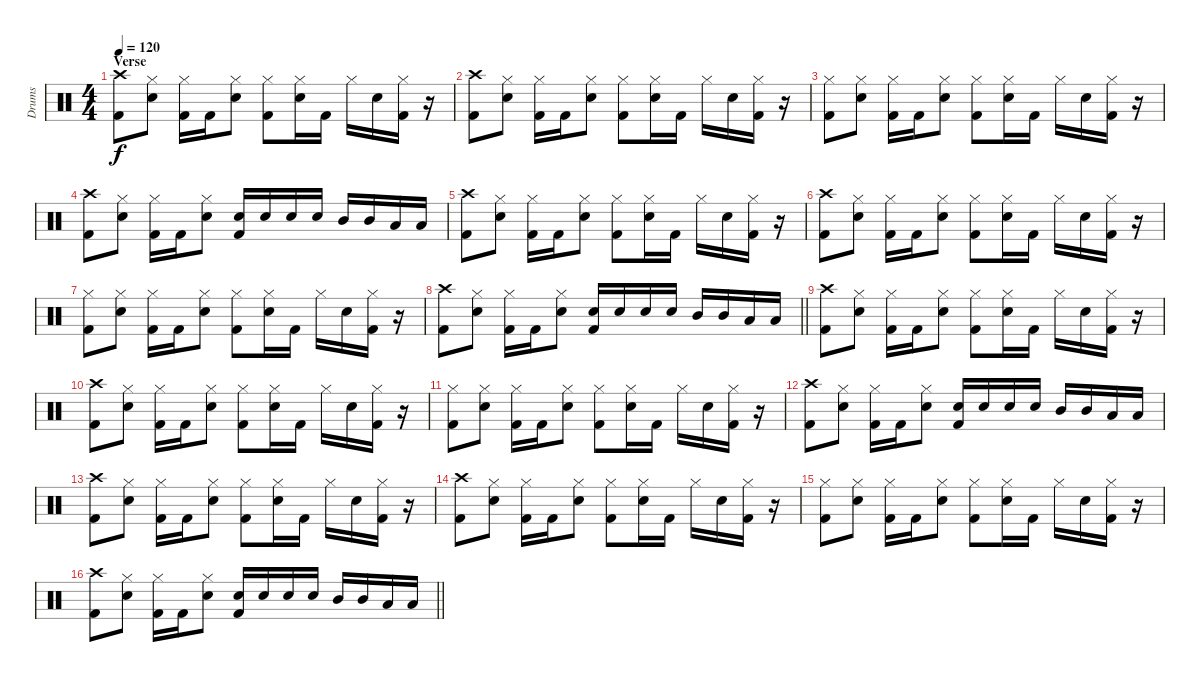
\track ("Drums" "Drums") {instrument percussion}
\staff {score}
\articulation defaults
\ts (4 4)
\section ("" "Verse")
\tempo 120
\clef neutral
\ks c
("Crash high (hit)" "Kick (hit) 2").8{dy f} ("Hi-Hat (closed)" "Snare (hit) 2").8 ("Hi-Hat (closed)" "Kick (hit) 2").16 "Kick (hit) 2".16 ("Hi-Hat (closed)" "Snare (hit) 2").8 ("Hi-Hat (closed)" "Kick (hit) 2").8 ("Hi-Hat (closed)" "Snare (hit) 2").16 "Kick (hit) 2".16 "Hi-Hat (closed)".16 "Snare (hit) 2".16 ("Hi-Hat (closed)" "Kick (hit) 2").16 r.16 |
("Crash high (hit)" "Kick (hit) 2").8 ("Hi-Hat (closed)" "Snare (hit) 2").8 ("Hi-Hat (closed)" "Kick (hit) 2").16 "Kick (hit) 2".16 ("Hi-Hat (closed)" "Snare (hit) 2").8 ("Hi-Hat (closed)" "Kick (hit) 2").8 ("Hi-Hat (closed)" "Snare (hit) 2").16 "Kick (hit) 2".16 "Hi-Hat (closed)".16 "Snare (hit) 2".16 ("Hi-Hat (closed)" "Kick (hit) 2").16 r.16 |
("Hi-Hat (closed)" "Kick (hit) 2").8 ("Hi-Hat (closed)" "Snare (hit) 2").8 ("Hi-Hat (closed)" "Kick (hit) 2").16 "Kick (hit) 2".16 ("Hi-Hat (closed)" "Snare (hit) 2").8 ("Hi-Hat (closed)" "Kick (hit) 2").8 ("Hi-Hat (closed)" "Snare (hit) 2").16 "Kick (hit) 2".16 "Hi-Hat (closed)".16 "Snare (hit) 2".16 ("Hi-Hat (closed)" "Kick (hit) 2").16 r.16 |
("Crash high (hit)" "Kick (hit) 2").8 ("Hi-Hat (closed)" "Snare (hit) 2").8 ("Hi-Hat (closed)" "Kick (hit) 2").16 "Kick (hit) 2".16 ("Hi-Hat (closed)" "Snare (hit) 2").8 ("Snare (hit) 2" "Kick (hit) 2").16 "Snare (hit) 2".16 "Snare (hit) 2".16 "Snare (hit) 2".16 "Mid Tom (hit)".16 "Mid Tom (hit)".16 "Low Tom (hit)".16 "Low Tom (hit)".16 |
("Crash high (hit)" "Kick (hit) 2").8 ("Hi-Hat (closed)" "Snare (hit) 2").8 ("Hi-Hat (closed)" "Kick (hit) 2").16 "Kick (hit) 2".16 ("Hi-Hat (closed)" "Snare (hit) 2").8 ("Hi-Hat (closed)" "Kick (hit) 2").8 ("Hi-Hat (closed)" "Snare (hit) 2").16 "Kick (hit) 2".16 "Hi-Hat (closed)".16 "Snare (hit) 2".16 ("Hi-Hat (closed)" "Kick (hit) 2").16 r.16 |
("Crash high (hit)" "Kick (hit) 2").8 ("Hi-Hat (closed)" "Snare (hit) 2").8 ("Hi-Hat (closed)" "Kick (hit) 2").16 "Kick (hit) 2".16 ("Hi-Hat (closed)" "Snare (hit) 2").8 ("Hi-Hat (closed)" "Kick (hit) 2").8 ("Hi-Hat (closed)" "Snare (hit) 2").16 "Kick (hit) 2".16 "Hi-Hat (closed)".16 "Snare (hit) 2".16 ("Hi-Hat (closed)" "Kick (hit) 2").16 r.16 |
("Hi-Hat (closed)" "Kick (hit) 2").8 ("Hi-Hat (closed)" "Snare (hit) 2").8 ("Hi-Hat (closed)" "Kick (hit) 2").16 "Kick (hit) 2".16 ("Hi-Hat (closed)" "Snare (hit) 2").8 ("Hi-Hat (closed)" "Kick (hit) 2").8 ("Hi-Hat (closed)" "Snare (hit) 2").16 "Kick (hit) 2".16 "Hi-Hat (closed)".16 "Snare (hit) 2".16 ("Hi-Hat (closed)" "Kick (hit) 2").16 r.16 |
\barLineRight lightlight
("Crash high (hit)" "Kick (hit) 2").8 ("Hi-Hat (closed)" "Snare (hit) 2").8 ("Hi-Hat (closed)" "Kick (hit) 2").16 "Kick (hit) 2".16 ("Hi-Hat (closed)" "Snare (hit) 2").8 ("Snare (hit) 2" "Kick (hit) 2").16 "Snare (hit) 2".16 "Snare (hit) 2".16 "Snare (hit) 2".16 "Mid Tom (hit)".16 "Mid Tom (hit)".16 "Low Tom (hit)".16 "Low Tom (hit)".16 |
("Crash high (hit)" "Kick (hit) 2").8 ("Hi-Hat (closed)" "Snare (hit) 2").8 ("Hi-Hat (closed)" "Kick (hit) 2").16 "Kick (hit) 2".16 ("Hi-Hat (closed)" "Snare (hit) 2").8 ("Hi-Hat (closed)" "Kick (hit) 2").8 ("Hi-Hat (closed)" "Snare (hit) 2").16 "Kick (hit) 2".16 "Hi-Hat (closed)".16 "Snare (hit) 2".16 ("Hi-Hat (closed)" "Kick (hit) 2").16 r.16 |
("Crash high (hit)" "Kick (hit) 2").8 ("Hi-Hat (closed)" "Snare (hit) 2").8 ("Hi-Hat (closed)" "Kick (hit) 2").16 "Kick (hit) 2".16 ("Hi-Hat (closed)" "Snare (hit) 2").8 ("Hi-Hat (closed)" "Kick (hit) 2").8 ("Hi-Hat (closed)" "Snare (hit) 2").16 "Kick (hit) 2".16 "Hi-Hat (closed)".16 "Snare (hit) 2".16 ("Hi-Hat (closed)" "Kick (hit) 2").16 r.16 |
("Hi-Hat (closed)" "Kick (hit) 2").8 ("Hi-Hat (closed)" "Snare (hit) 2").8 ("Hi-Hat (closed)" "Kick (hit) 2").16 "Kick (hit) 2".16 ("Hi-Hat (closed)" "Snare (hit) 2").8 ("Hi-Hat (closed)" "Kick (hit) 2").8 ("Hi-Hat (closed)" "Snare (hit) 2").16 "Kick (hit) 2".16 "Hi-Hat (closed)".16 "Snare (hit) 2".16 ("Hi-Hat (closed)" "Kick (hit) 2").16 r.16 |
("Crash high (hit)" "Kick (hit) 2").8 ("Hi-Hat (closed)" "Snare (hit) 2").8 ("Hi-Hat (closed)" "Kick (hit) 2").16 "Kick (hit) 2".16 ("Hi-Hat (closed)" "Snare (hit) 2").8 ("Snare (hit) 2" "Kick (hit) 2").16 "Snare (hit) 2".16 "Snare (hit) 2".16 "Snare (hit) 2".16 "Mid Tom (hit)".16 "Mid Tom (hit)".16 "Low Tom (hit)".16 "Low Tom (hit)".16 |
("Crash high (hit)" "Kick (hit) 2").8 ("Hi-Hat (closed)" "Snare (hit) 2").8 ("Hi-Hat (closed)" "Kick (hit) 2").16 "Kick (hit) 2".16 ("Hi-Hat (closed)" "Snare (hit) 2").8 ("Hi-Hat (closed)" "Kick (hit) 2").8 ("Hi-Hat (closed)" "Snare (hit) 2").16 "Kick (hit) 2".16 "Hi-Hat (closed)".16 "Snare (hit) 2".16 ("Hi-Hat (closed)" "Kick (hit) 2").16 r.16 |
("Crash high (hit)" "Kick (hit) 2").8 ("Hi-Hat (closed)" "Snare (hit) 2").8 ("Hi-Hat (closed)" "Kick (hit) 2").16 "Kick (hit) 2".16 ("Hi-Hat (closed)" "Snare (hit) 2").8 ("Hi-Hat (closed)" "Kick (hit) 2").8 ("Hi-Hat (closed)" "Snare (hit) 2").16 "Kick (hit) 2".16 "Hi-Hat (closed)".16 "Snare (hit) 2".16 ("Hi-Hat (closed)" "Kick (hit) 2").16 r.16 |
("Hi-Hat (closed)" "Kick (hit) 2").8 ("Hi-Hat (closed)" "Snare (hit) 2").8 ("Hi-Hat (closed)" "Kick (hit) 2").16 "Kick (hit) 2".16 ("Hi-Hat (closed)" "Snare (hit) 2").8 ("Hi-Hat (closed)" "Kick (hit) 2").8 ("Hi-Hat (closed)" "Snare (hit) 2").16 "Kick (hit) 2".16 "Hi-Hat (closed)".16 "Snare (hit) 2".16 ("Hi-Hat (closed)" "Kick (hit) 2").16 r.16 |
\barLineRight lightlight
("Crash high (hit)" "Kick (hit) 2").8 ("Hi-Hat (closed)" "Snare (hit) 2").8 ("Hi-Hat (closed)" "Kick (hit) 2").16 "Kick (hit) 2".16 ("Hi-Hat (closed)" "Snare (hit) 2").8 ("Snare (hit) 2" "Kick (hit) 2").16 "Snare (hit) 2".16 "Snare (hit) 2".16 "Snare (hit) 2".16 "Mid Tom (hit)".16 "Mid Tom (hit)".16 "Low Tom (hit)".16 "Low Tom (hit)".16
